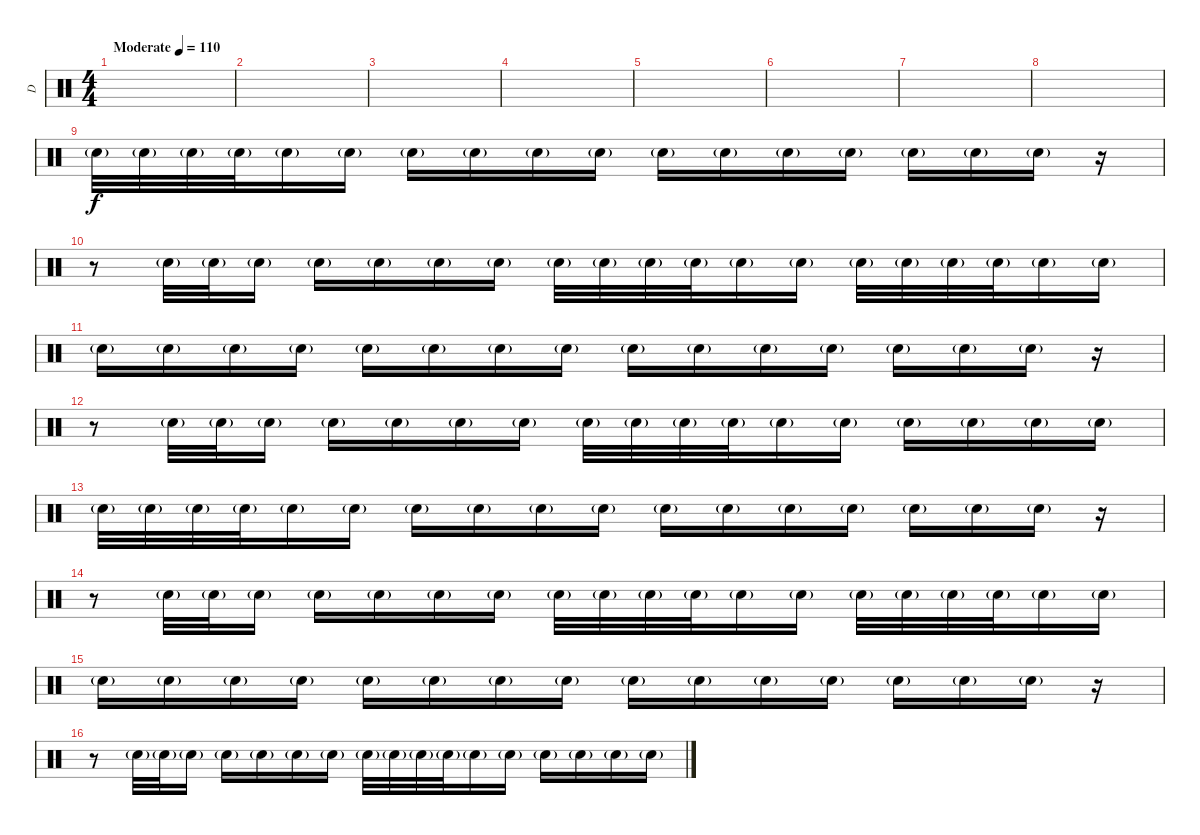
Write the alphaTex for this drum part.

\track ("D" "D") {instrument percussion}
\staff {score}
\articulation defaults
\ts (4 4)
\tempo (110 "Moderate")
\clef neutral
\ks c
|
|
|
|
|
|
|
|
"Electric Snare (hit)"{g}.32{volume 13} "Electric Snare (hit)"{g}.32 "Electric Snare (hit)"{g}.32 "Electric Snare (hit)"{g}.32 "Electric Snare (hit)"{g}.16 "Electric Snare (hit)"{g}.16 "Electric Snare (hit)"{g}.16 "Electric Snare (hit)"{g}.16 "Electric Snare (hit)"{g}.16 "Electric Snare (hit)"{g}.16 "Electric Snare (hit)"{g}.16 "Electric Snare (hit)"{g}.16 "Electric Snare (hit)"{g}.16 "Electric Snare (hit)"{g}.16 "Electric Snare (hit)"{g}.16 "Electric Snare (hit)"{g}.16 "Electric Snare (hit)"{g}.16 r.16 |
r.8 "Electric Snare (hit)"{g}.32 "Electric Snare (hit)"{g}.32 "Electric Snare (hit)"{g}.16 "Electric Snare (hit)"{g}.16 "Electric Snare (hit)"{g}.16 "Electric Snare (hit)"{g}.16 "Electric Snare (hit)"{g}.16 "Electric Snare (hit)"{g}.32 "Electric Snare (hit)"{g}.32 "Electric Snare (hit)"{g}.32 "Electric Snare (hit)"{g}.32 "Electric Snare (hit)"{g}.16 "Electric Snare (hit)"{g}.16 "Electric Snare (hit)"{g}.32 "Electric Snare (hit)"{g}.32 "Electric Snare (hit)"{g}.32 "Electric Snare (hit)"{g}.32 "Electric Snare (hit)"{g}.16 "Electric Snare (hit)"{g}.16 |
"Electric Snare (hit)"{g}.16 "Electric Snare (hit)"{g}.16 "Electric Snare (hit)"{g}.16 "Electric Snare (hit)"{g}.16 "Electric Snare (hit)"{g}.16 "Electric Snare (hit)"{g}.16 "Electric Snare (hit)"{g}.16 "Electric Snare (hit)"{g}.16 "Electric Snare (hit)"{g}.16 "Electric Snare (hit)"{g}.16 "Electric Snare (hit)"{g}.16 "Electric Snare (hit)"{g}.16 "Electric Snare (hit)"{g}.16 "Electric Snare (hit)"{g}.16 "Electric Snare (hit)"{g}.16 r.16 |
r.8 "Electric Snare (hit)"{g}.32 "Electric Snare (hit)"{g}.32 "Electric Snare (hit)"{g}.16 "Electric Snare (hit)"{g}.16 "Electric Snare (hit)"{g}.16 "Electric Snare (hit)"{g}.16 "Electric Snare (hit)"{g}.16 "Electric Snare (hit)"{g}.32 "Electric Snare (hit)"{g}.32 "Electric Snare (hit)"{g}.32 "Electric Snare (hit)"{g}.32 "Electric Snare (hit)"{g}.16 "Electric Snare (hit)"{g}.16 "Electric Snare (hit)"{g}.16 "Electric Snare (hit)"{g}.16 "Electric Snare (hit)"{g}.16 "Electric Snare (hit)"{g}.16 |
"Electric Snare (hit)"{g}.32 "Electric Snare (hit)"{g}.32 "Electric Snare (hit)"{g}.32 "Electric Snare (hit)"{g}.32 "Electric Snare (hit)"{g}.16 "Electric Snare (hit)"{g}.16 "Electric Snare (hit)"{g}.16 "Electric Snare (hit)"{g}.16 "Electric Snare (hit)"{g}.16 "Electric Snare (hit)"{g}.16 "Electric Snare (hit)"{g}.16 "Electric Snare (hit)"{g}.16 "Electric Snare (hit)"{g}.16 "Electric Snare (hit)"{g}.16 "Electric Snare (hit)"{g}.16 "Electric Snare (hit)"{g}.16 "Electric Snare (hit)"{g}.16 r.16 |
r.8 "Electric Snare (hit)"{g}.32 "Electric Snare (hit)"{g}.32 "Electric Snare (hit)"{g}.16 "Electric Snare (hit)"{g}.16 "Electric Snare (hit)"{g}.16 "Electric Snare (hit)"{g}.16 "Electric Snare (hit)"{g}.16 "Electric Snare (hit)"{g}.32 "Electric Snare (hit)"{g}.32 "Electric Snare (hit)"{g}.32 "Electric Snare (hit)"{g}.32 "Electric Snare (hit)"{g}.16 "Electric Snare (hit)"{g}.16 "Electric Snare (hit)"{g}.32 "Electric Snare (hit)"{g}.32 "Electric Snare (hit)"{g}.32 "Electric Snare (hit)"{g}.32 "Electric Snare (hit)"{g}.16 "Electric Snare (hit)"{g}.16 |
"Electric Snare (hit)"{g}.16 "Electric Snare (hit)"{g}.16 "Electric Snare (hit)"{g}.16 "Electric Snare (hit)"{g}.16 "Electric Snare (hit)"{g}.16 "Electric Snare (hit)"{g}.16 "Electric Snare (hit)"{g}.16 "Electric Snare (hit)"{g}.16 "Electric Snare (hit)"{g}.16 "Electric Snare (hit)"{g}.16 "Electric Snare (hit)"{g}.16 "Electric Snare (hit)"{g}.16 "Electric Snare (hit)"{g}.16 "Electric Snare (hit)"{g}.16 "Electric Snare (hit)"{g}.16 r.16 |
r.8 "Electric Snare (hit)"{g}.32 "Electric Snare (hit)"{g}.32 "Electric Snare (hit)"{g}.16 "Electric Snare (hit)"{g}.16 "Electric Snare (hit)"{g}.16 "Electric Snare (hit)"{g}.16 "Electric Snare (hit)"{g}.16 "Electric Snare (hit)"{g}.32 "Electric Snare (hit)"{g}.32 "Electric Snare (hit)"{g}.32 "Electric Snare (hit)"{g}.32 "Electric Snare (hit)"{g}.16 "Electric Snare (hit)"{g}.16 "Electric Snare (hit)"{g}.16 "Electric Snare (hit)"{g}.16 "Electric Snare (hit)"{g}.16 "Electric Snare (hit)"{g}.16
